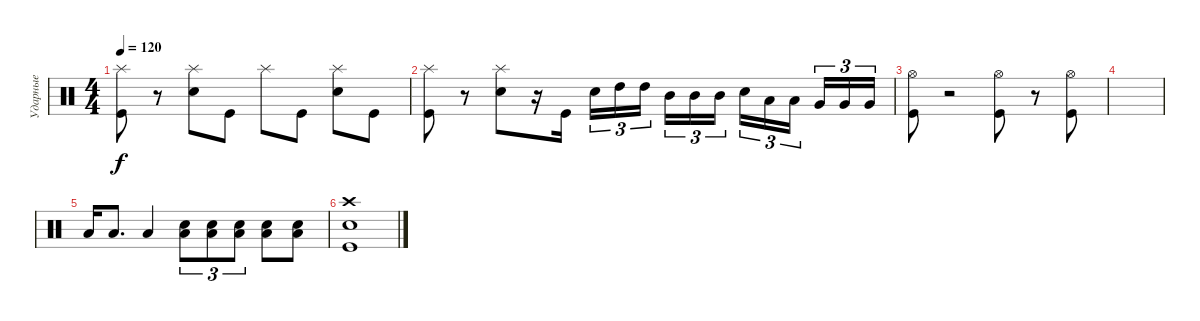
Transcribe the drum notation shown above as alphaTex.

\track ("Ударные" "Ударные") {instrument percussion}
\staff {score}
\articulation defaults
\ts (4 4)
\tempo 120
\clef neutral
\ks c
("Splash (hit)" "Kick (hit)").8{dy f} r.8 ("Splash (hit)" "Snare (hit) 2").8 "Kick (hit)".8 "Splash (hit)".8 "Kick (hit)".8 ("Splash (hit)" "Snare (hit) 2").8 "Kick (hit)".8 |
("Splash (hit)" "Kick (hit)").8 r.8 ("Splash (hit)" "Snare (hit) 2").8 r.16 "Kick (hit)".16 "Snare (hit) 2".16{tu (3 2)} "High Tom (hit)".16{tu (3 2)} "High Tom (hit)".16{tu (3 2) beam splitsecondary} "Mid Tom (hit)".16{tu (3 2)} "Mid Tom (hit)".16{tu (3 2)} "Mid Tom (hit)".16{tu (3 2)} "Snare (hit) 2".16{tu (3 2)} "Low Tom (hit)".16{tu (3 2)} "Low Tom (hit)".16{tu (3 2) beam splitsecondary} "Very Low Tom (hit)".16{tu (3 2)} "Very Low Tom (hit)".16{tu (3 2)} "Very Low Tom (hit)".16{tu (3 2)} |
("Hi-Hat (open)" "Kick (hit)").8 r.2 ("Hi-Hat (open)" "Kick (hit)").8 r.8 ("Hi-Hat (open)" "Kick (hit)").8 |
|
"Low Tom (hit)".16 "Low Tom (hit)".8{d} "Low Tom (hit)".4 ("Snare (hit) 2" "Low Tom (hit)").8{tu (3 2)} ("Snare (hit) 2" "Low Tom (hit)").8{tu (3 2)} ("Snare (hit) 2" "Low Tom (hit)").8{tu (3 2)} ("Snare (hit) 2" "Low Tom (hit)").8 ("Snare (hit) 2" "Low Tom (hit)").8 |
("Crash high (hit)" "Snare (hit) 2" "Kick (hit)").1
